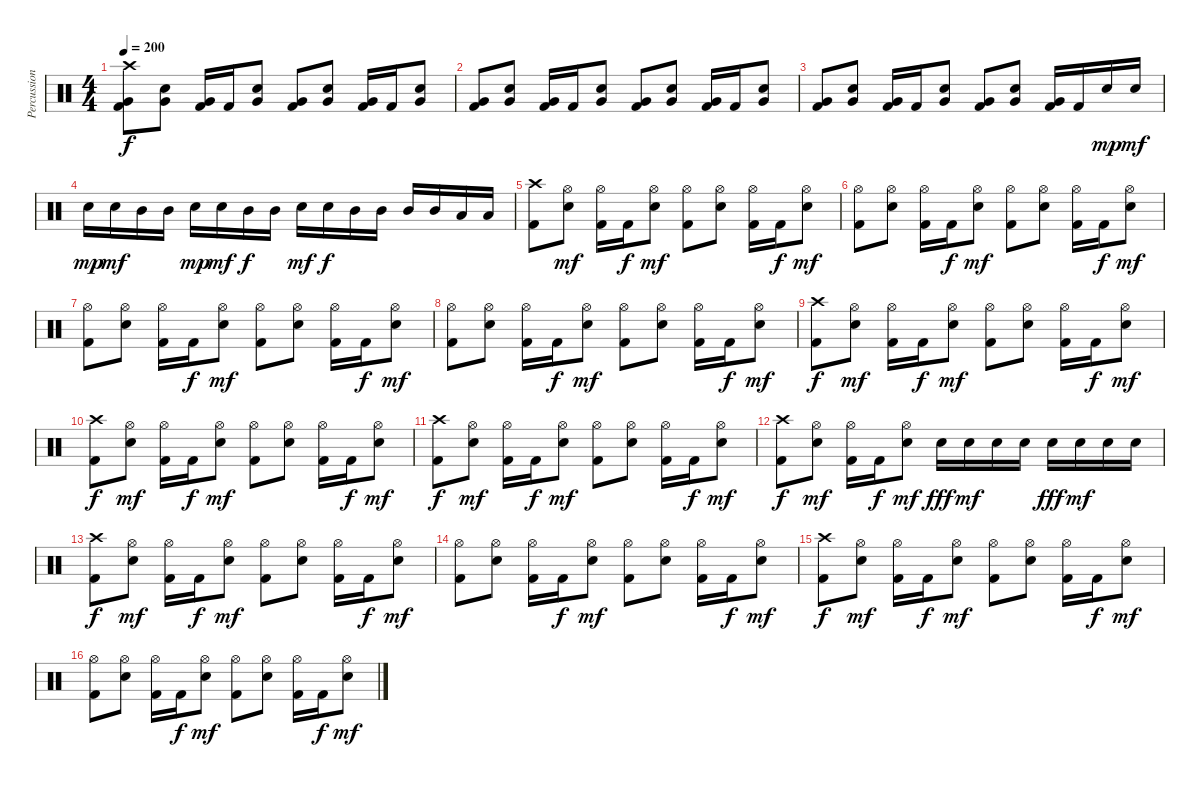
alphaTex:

\track ("Percussions" "Percussion") {instrument percussion}
\staff {score}
\articulation defaults
\ts (4 4)
\tempo 200
\clef neutral
\ks c
("Crash high (hit)" "Very Low Tom (hit)" "Kick (hit) 2").8{dy f} ("Very Low Tom (hit)" "Snare (hit) 2").8 ("Very Low Tom (hit)" "Kick (hit) 2").16 "Kick (hit) 2".16 ("Very Low Tom (hit)" "Snare (hit) 2").8 ("Very Low Tom (hit)" "Kick (hit) 2").8 ("Very Low Tom (hit)" "Snare (hit) 2").8 ("Very Low Tom (hit)" "Kick (hit) 2").16 "Kick (hit) 2".16 ("Very Low Tom (hit)" "Snare (hit) 2").8 |
("Very Low Tom (hit)" "Kick (hit) 2").8 ("Very Low Tom (hit)" "Snare (hit) 2").8 ("Very Low Tom (hit)" "Kick (hit) 2").16 "Kick (hit) 2".16 ("Very Low Tom (hit)" "Snare (hit) 2").8 ("Very Low Tom (hit)" "Kick (hit) 2").8 ("Very Low Tom (hit)" "Snare (hit) 2").8 ("Very Low Tom (hit)" "Kick (hit) 2").16 "Kick (hit) 2".16 ("Very Low Tom (hit)" "Snare (hit) 2").8 |
("Very Low Tom (hit)" "Kick (hit) 2").8 ("Very Low Tom (hit)" "Snare (hit) 2").8 ("Very Low Tom (hit)" "Kick (hit) 2").16 "Kick (hit) 2".16 ("Very Low Tom (hit)" "Snare (hit) 2").8 ("Very Low Tom (hit)" "Kick (hit) 2").8 ("Very Low Tom (hit)" "Snare (hit) 2").8 ("Very Low Tom (hit)" "Kick (hit) 2").16 "Kick (hit) 2".16 "Snare (hit) 2".16{dy mp} "Snare (hit) 2".16{dy mf} |
"Snare (hit) 2".16{dy mp} "Snare (hit) 2".16{dy mf} "Mid Tom (hit)".16 "Mid Tom (hit)".16 "Snare (hit) 2".16{dy mp} "Snare (hit) 2".16{dy mf} "Mid Tom (hit)".16{dy f} "Mid Tom (hit)".16 "Snare (hit) 2".16{dy mf} "Snare (hit) 2".16{dy f} "Mid Tom (hit)".16 "Mid Tom (hit)".16 "Mid Tom (hit)".16 "Mid Tom (hit)".16 "Low Tom (hit)".16 "Low Tom (hit)".16 |
("Crash high (hit)" "Kick (hit) 2").8 ("Hi-Hat (open)" "Snare (hit) 2").8{dy mf} ("Hi-Hat (open)" "Kick (hit) 2").16 "Kick (hit) 2".16{dy f} ("Hi-Hat (open)" "Snare (hit) 2").8{dy mf} ("Hi-Hat (open)" "Kick (hit) 2").8 ("Hi-Hat (open)" "Snare (hit) 2").8 ("Hi-Hat (open)" "Kick (hit) 2").16 "Kick (hit) 2".16{dy f} ("Hi-Hat (open)" "Snare (hit) 2").8{dy mf} |
("Hi-Hat (open)" "Kick (hit) 2").8 ("Hi-Hat (open)" "Snare (hit) 2").8 ("Hi-Hat (open)" "Kick (hit) 2").16 "Kick (hit) 2".16{dy f} ("Hi-Hat (open)" "Snare (hit) 2").8{dy mf} ("Hi-Hat (open)" "Kick (hit) 2").8 ("Hi-Hat (open)" "Snare (hit) 2").8 ("Hi-Hat (open)" "Kick (hit) 2").16 "Kick (hit) 2".16{dy f} ("Hi-Hat (open)" "Snare (hit) 2").8{dy mf} |
("Hi-Hat (open)" "Kick (hit) 2").8 ("Hi-Hat (open)" "Snare (hit) 2").8 ("Hi-Hat (open)" "Kick (hit) 2").16 "Kick (hit) 2".16{dy f} ("Hi-Hat (open)" "Snare (hit) 2").8{dy mf} ("Hi-Hat (open)" "Kick (hit) 2").8 ("Hi-Hat (open)" "Snare (hit) 2").8 ("Hi-Hat (open)" "Kick (hit) 2").16 "Kick (hit) 2".16{dy f} ("Hi-Hat (open)" "Snare (hit) 2").8{dy mf} |
("Hi-Hat (open)" "Kick (hit) 2").8 ("Hi-Hat (open)" "Snare (hit) 2").8 ("Hi-Hat (open)" "Kick (hit) 2").16 "Kick (hit) 2".16{dy f} ("Hi-Hat (open)" "Snare (hit) 2").8{dy mf} ("Hi-Hat (open)" "Kick (hit) 2").8 ("Hi-Hat (open)" "Snare (hit) 2").8 ("Hi-Hat (open)" "Kick (hit) 2").16 "Kick (hit) 2".16{dy f} ("Hi-Hat (open)" "Snare (hit) 2").8{dy mf} |
("Crash high (hit)" "Kick (hit) 2").8{dy f} ("Hi-Hat (open)" "Snare (hit) 2").8{dy mf} ("Hi-Hat (open)" "Kick (hit) 2").16 "Kick (hit) 2".16{dy f} ("Hi-Hat (open)" "Snare (hit) 2").8{dy mf} ("Hi-Hat (open)" "Kick (hit) 2").8 ("Hi-Hat (open)" "Snare (hit) 2").8 ("Hi-Hat (open)" "Kick (hit) 2").16 "Kick (hit) 2".16{dy f} ("Hi-Hat (open)" "Snare (hit) 2").8{dy mf} |
("Crash high (hit)" "Kick (hit) 2").8{dy f} ("Hi-Hat (open)" "Snare (hit) 2").8{dy mf} ("Hi-Hat (open)" "Kick (hit) 2").16 "Kick (hit) 2".16{dy f} ("Hi-Hat (open)" "Snare (hit) 2").8{dy mf} ("Hi-Hat (open)" "Kick (hit) 2").8 ("Hi-Hat (open)" "Snare (hit) 2").8 ("Hi-Hat (open)" "Kick (hit) 2").16 "Kick (hit) 2".16{dy f} ("Hi-Hat (open)" "Snare (hit) 2").8{dy mf} |
("Crash high (hit)" "Kick (hit) 2").8{dy f} ("Hi-Hat (open)" "Snare (hit) 2").8{dy mf} ("Hi-Hat (open)" "Kick (hit) 2").16 "Kick (hit) 2".16{dy f} ("Hi-Hat (open)" "Snare (hit) 2").8{dy mf} ("Hi-Hat (open)" "Kick (hit) 2").8 ("Hi-Hat (open)" "Snare (hit) 2").8 ("Hi-Hat (open)" "Kick (hit) 2").16 "Kick (hit) 2".16{dy f} ("Hi-Hat (open)" "Snare (hit) 2").8{dy mf} |
("Crash high (hit)" "Kick (hit) 2").8{dy f} ("Hi-Hat (open)" "Snare (hit) 2").8{dy mf} ("Hi-Hat (open)" "Kick (hit) 2").16 "Kick (hit) 2".16{dy f} ("Hi-Hat (open)" "Snare (hit) 2").8{dy mf} "Snare (hit) 2".16{dy fff} "Snare (hit) 2".16{dy mf} "Snare (hit) 2".16 "Snare (hit) 2".16 "Snare (hit) 2".16{dy fff} "Snare (hit) 2".16{dy mf} "Snare (hit) 2".16 "Snare (hit) 2".16 |
("Crash high (hit)" "Kick (hit) 2").8{dy f} ("Hi-Hat (open)" "Snare (hit) 2").8{dy mf} ("Hi-Hat (open)" "Kick (hit) 2").16 "Kick (hit) 2".16{dy f} ("Hi-Hat (open)" "Snare (hit) 2").8{dy mf} ("Hi-Hat (open)" "Kick (hit) 2").8 ("Hi-Hat (open)" "Snare (hit) 2").8 ("Hi-Hat (open)" "Kick (hit) 2").16 "Kick (hit) 2".16{dy f} ("Hi-Hat (open)" "Snare (hit) 2").8{dy mf} |
("Hi-Hat (open)" "Kick (hit) 2").8 ("Hi-Hat (open)" "Snare (hit) 2").8 ("Hi-Hat (open)" "Kick (hit) 2").16 "Kick (hit) 2".16{dy f} ("Hi-Hat (open)" "Snare (hit) 2").8{dy mf} ("Hi-Hat (open)" "Kick (hit) 2").8 ("Hi-Hat (open)" "Snare (hit) 2").8 ("Hi-Hat (open)" "Kick (hit) 2").16 "Kick (hit) 2".16{dy f} ("Hi-Hat (open)" "Snare (hit) 2").8{dy mf} |
("Crash high (hit)" "Kick (hit) 2").8{dy f} ("Hi-Hat (open)" "Snare (hit) 2").8{dy mf} ("Hi-Hat (open)" "Kick (hit) 2").16 "Kick (hit) 2".16{dy f} ("Hi-Hat (open)" "Snare (hit) 2").8{dy mf} ("Hi-Hat (open)" "Kick (hit) 2").8 ("Hi-Hat (open)" "Snare (hit) 2").8 ("Hi-Hat (open)" "Kick (hit) 2").16 "Kick (hit) 2".16{dy f} ("Hi-Hat (open)" "Snare (hit) 2").8{dy mf} |
("Hi-Hat (open)" "Kick (hit) 2").8 ("Hi-Hat (open)" "Snare (hit) 2").8 ("Hi-Hat (open)" "Kick (hit) 2").16 "Kick (hit) 2".16{dy f} ("Hi-Hat (open)" "Snare (hit) 2").8{dy mf} ("Hi-Hat (open)" "Kick (hit) 2").8 ("Hi-Hat (open)" "Snare (hit) 2").8 ("Hi-Hat (open)" "Kick (hit) 2").16 "Kick (hit) 2".16{dy f} ("Hi-Hat (open)" "Snare (hit) 2").8{dy mf}
